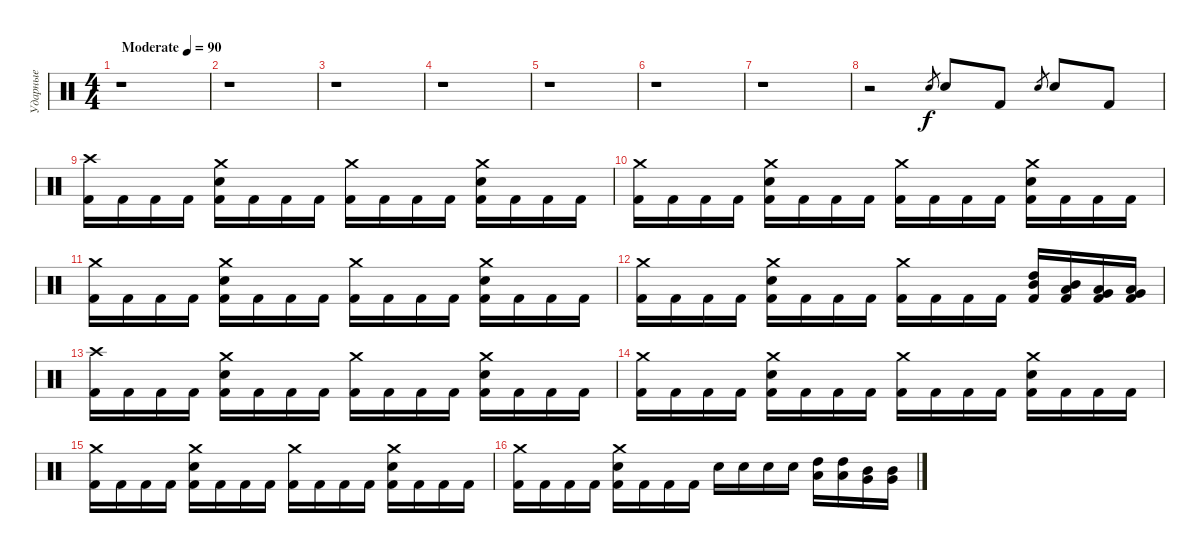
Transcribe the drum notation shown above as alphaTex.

\track ("Ударные" "Ударные") {instrument percussion}
\staff {score}
\articulation defaults
\ts (4 4)
\tempo (90 "Moderate")
\clef neutral
\ks c
r.1{dy f} |
r.1 |
r.1 |
r.1 |
r.1 |
r.1 |
r.1 |
r.2 "Electric Snare (hit)".8{gr} "Electric Snare (hit)".8 "Kick (hit) 2".8 "Electric Snare (hit)".8{gr} "Electric Snare (hit)".8 "Kick (hit) 2".8 |
("Crash high (hit)" "Kick (hit) 2").16 "Kick (hit) 2".16 "Kick (hit) 2".16 "Kick (hit) 2".16 ("Crash medium (hit)" "Electric Snare (hit)" "Kick (hit) 2").16 "Kick (hit) 2".16 "Kick (hit) 2".16 "Kick (hit) 2".16 ("Crash medium (hit)" "Kick (hit) 2").16 "Kick (hit) 2".16 "Kick (hit) 2".16 "Kick (hit) 2".16 ("Crash medium (hit)" "Electric Snare (hit)" "Kick (hit) 2").16 "Kick (hit) 2".16 "Kick (hit) 2".16 "Kick (hit) 2".16 |
("Crash medium (hit)" "Kick (hit) 2").16 "Kick (hit) 2".16 "Kick (hit) 2".16 "Kick (hit) 2".16 ("Crash medium (hit)" "Electric Snare (hit)" "Kick (hit) 2").16 "Kick (hit) 2".16 "Kick (hit) 2".16 "Kick (hit) 2".16 ("Crash medium (hit)" "Kick (hit) 2").16 "Kick (hit) 2".16 "Kick (hit) 2".16 "Kick (hit) 2".16 ("Crash medium (hit)" "Electric Snare (hit)" "Kick (hit) 2").16 "Kick (hit) 2".16 "Kick (hit) 2".16 "Kick (hit) 2".16 |
("Crash medium (hit)" "Kick (hit) 2").16 "Kick (hit) 2".16 "Kick (hit) 2".16 "Kick (hit) 2".16 ("Crash medium (hit)" "Electric Snare (hit)" "Kick (hit) 2").16 "Kick (hit) 2".16 "Kick (hit) 2".16 "Kick (hit) 2".16 ("Crash medium (hit)" "Kick (hit) 2").16 "Kick (hit) 2".16 "Kick (hit) 2".16 "Kick (hit) 2".16 ("Crash medium (hit)" "Electric Snare (hit)" "Kick (hit) 2").16 "Kick (hit) 2".16 "Kick (hit) 2".16 "Kick (hit) 2".16 |
("Crash medium (hit)" "Kick (hit) 2").16 "Kick (hit) 2".16 "Kick (hit) 2".16 "Kick (hit) 2".16 ("Crash medium (hit)" "Electric Snare (hit)" "Kick (hit) 2").16 "Kick (hit) 2".16 "Kick (hit) 2".16 "Kick (hit) 2".16 ("Crash medium (hit)" "Kick (hit) 2").16 "Kick (hit) 2".16 "Kick (hit) 2".16 "Kick (hit) 2".16 ("High Tom (hit)" "Mid Tom (hit)" "Kick (hit) 2").16 ("Mid Tom (hit)" "Low Tom (hit)" "Kick (hit) 2").16 ("Low Tom (hit)" "Very Low Tom (hit)" "Kick (hit) 2").16 ("Very Low Tom (hit)" "Low Floor Tom (hit)" "Kick (hit) 2").16 |
("Crash high (hit)" "Kick (hit) 2").16 "Kick (hit) 2".16 "Kick (hit) 2".16 "Kick (hit) 2".16 ("Crash medium (hit)" "Electric Snare (hit)" "Kick (hit) 2").16 "Kick (hit) 2".16 "Kick (hit) 2".16 "Kick (hit) 2".16 ("Crash medium (hit)" "Kick (hit) 2").16 "Kick (hit) 2".16 "Kick (hit) 2".16 "Kick (hit) 2".16 ("Crash medium (hit)" "Electric Snare (hit)" "Kick (hit) 2").16 "Kick (hit) 2".16 "Kick (hit) 2".16 "Kick (hit) 2".16 |
("Crash medium (hit)" "Kick (hit) 2").16 "Kick (hit) 2".16 "Kick (hit) 2".16 "Kick (hit) 2".16 ("Crash medium (hit)" "Electric Snare (hit)" "Kick (hit) 2").16 "Kick (hit) 2".16 "Kick (hit) 2".16 "Kick (hit) 2".16 ("Crash medium (hit)" "Kick (hit) 2").16 "Kick (hit) 2".16 "Kick (hit) 2".16 "Kick (hit) 2".16 ("Crash medium (hit)" "Electric Snare (hit)" "Kick (hit) 2").16 "Kick (hit) 2".16 "Kick (hit) 2".16 "Kick (hit) 2".16 |
("Crash medium (hit)" "Kick (hit) 2").16 "Kick (hit) 2".16 "Kick (hit) 2".16 "Kick (hit) 2".16 ("Crash medium (hit)" "Electric Snare (hit)" "Kick (hit) 2").16 "Kick (hit) 2".16 "Kick (hit) 2".16 "Kick (hit) 2".16 ("Crash medium (hit)" "Kick (hit) 2").16 "Kick (hit) 2".16 "Kick (hit) 2".16 "Kick (hit) 2".16 ("Crash medium (hit)" "Electric Snare (hit)" "Kick (hit) 2").16 "Kick (hit) 2".16 "Kick (hit) 2".16 "Kick (hit) 2".16 |
("Crash medium (hit)" "Kick (hit) 2").16 "Kick (hit) 2".16 "Kick (hit) 2".16 "Kick (hit) 2".16 ("Crash medium (hit)" "Electric Snare (hit)" "Kick (hit) 2").16 "Kick (hit) 2".16 "Kick (hit) 2".16 "Kick (hit) 2".16 "Electric Snare (hit)".16 "Electric Snare (hit)".16 "Electric Snare (hit)".16 "Electric Snare (hit)".16 ("High Tom (hit)" "Low Tom (hit)").16 ("High Tom (hit)" "Low Tom (hit)").16 ("Mid Tom (hit)" "Very Low Tom (hit)").16 ("Mid Tom (hit)" "Very Low Tom (hit)").16
